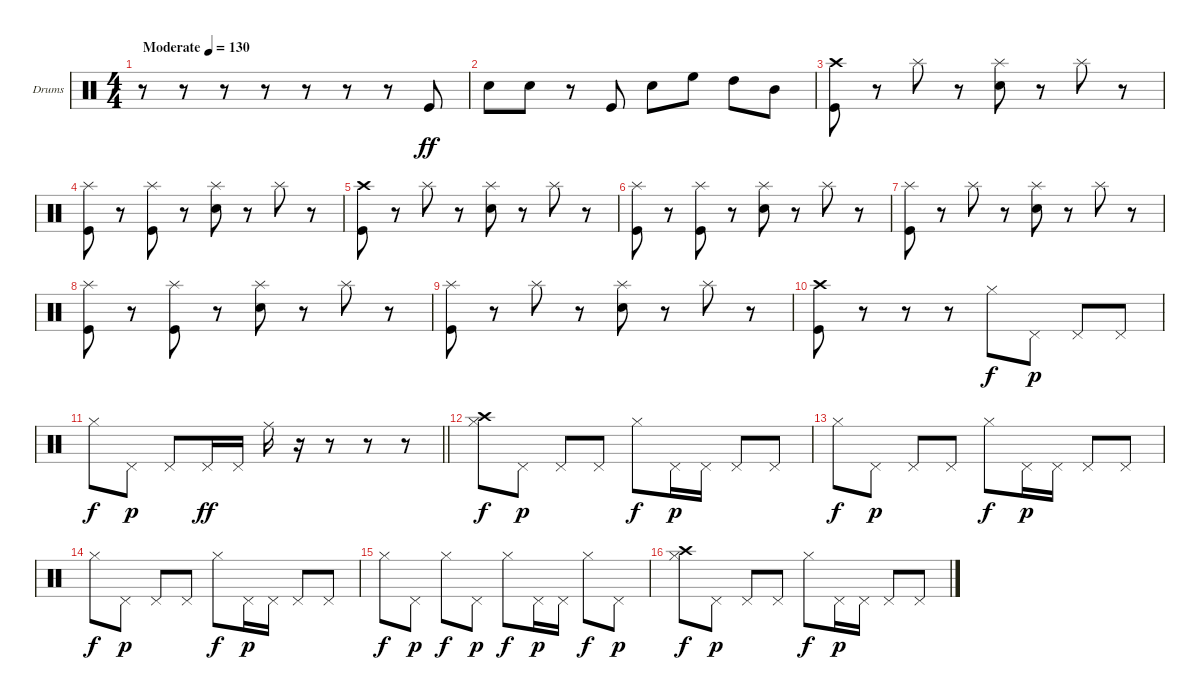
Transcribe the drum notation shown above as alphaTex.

\bracketExtendMode groupsimilarinstruments
\firstSystemTrackNameOrientation horizontal
\otherSystemsTrackNameOrientation horizontal
\track ("Drumkit" "Drums") {instrument percussion}
\staff {score}
\articulation defaults
\ts (4 4)
\beaming (8 2 2 2 2)
\tempo (130 "Moderate")
\clef neutral
\ks c
r.8{dy ff} r.8 r.8 r.8 r.8 r.8 r.8 "Kick (hit)".8 |
"Snare (hit) 2".8 "Snare (hit) 2".8 r.8 "Kick (hit)".8 "Snare (hit) 2".8 "High Floor Tom (hit)".8 "High Tom (hit)".8 "Mid Tom (hit)".8 |
("Kick (hit)" "Crash high (hit)").8 r.8 "Splash (hit)".8 r.8 ("Snare (hit) 2" "Splash (hit)").8 r.8 "Splash (hit)".8 r.8 |
("Kick (hit)" "Splash (hit)").8 r.8 ("Kick (hit)" "Splash (hit)").8 r.8 ("Snare (hit) 2" "Splash (hit)").8 r.8 "Splash (hit)".8 r.8 |
("Kick (hit)" "Crash high (hit)").8 r.8 "Splash (hit)".8 r.8 ("Snare (hit) 2" "Splash (hit)").8 r.8 "Splash (hit)".8 r.8 |
("Kick (hit)" "Splash (hit)").8 r.8 ("Kick (hit)" "Splash (hit)").8 r.8 ("Snare (hit) 2" "Splash (hit)").8 r.8 "Splash (hit)".8 r.8 |
("Kick (hit)" "Splash (hit)").8 r.8 "Splash (hit)".8 r.8 ("Snare (hit) 2" "Splash (hit)").8 r.8 "Splash (hit)".8 r.8 |
("Kick (hit)" "Splash (hit)").8 r.8 ("Kick (hit)" "Splash (hit)").8 r.8 ("Snare (hit) 2" "Splash (hit)").8 r.8 "Splash (hit)".8 r.8 |
("Kick (hit)" "Splash (hit)").8 r.8 "Splash (hit)".8 r.8 ("Snare (hit) 2" "Splash (hit)").8 r.8 "Splash (hit)".8 r.8 |
("Kick (hit)" "Crash high (hit)").8 r.8 r.8 r.8 "Hi-Hat (closed)".8{dy f} "Pedal Hi-Hat (hit)".8{dy p} "Pedal Hi-Hat (hit)".8 "Pedal Hi-Hat (hit)".8 |
\barLineRight lightlight "Hi-Hat (closed)".8{dy f} "Pedal Hi-Hat (hit)".8{dy p} "Pedal Hi-Hat (hit)".8 "Pedal Hi-Hat (hit)".16{dy ff} "Pedal Hi-Hat (hit)".16 "Ride (middle)".16
r.16 r.8 r.8 r.8 |
\section ("" "")
("Hi-Hat (closed)" "Crash high (hit)").8{dy f} "Pedal Hi-Hat (hit)".8{dy p} "Pedal Hi-Hat (hit)".8 "Pedal Hi-Hat (hit)".8 "Hi-Hat (closed)".8{dy f} "Pedal Hi-Hat (hit)".16{dy p} "Pedal Hi-Hat (hit)".16 "Pedal Hi-Hat (hit)".8 "Pedal Hi-Hat (hit)".8 |
"Hi-Hat (closed)".8{dy f} "Pedal Hi-Hat (hit)".8{dy p} "Pedal Hi-Hat (hit)".8 "Pedal Hi-Hat (hit)".8 "Hi-Hat (closed)".8{dy f} "Pedal Hi-Hat (hit)".16{dy p} "Pedal Hi-Hat (hit)".16 "Pedal Hi-Hat (hit)".8 "Pedal Hi-Hat (hit)".8 |
"Hi-Hat (closed)".8{dy f} "Pedal Hi-Hat (hit)".8{dy p} "Pedal Hi-Hat (hit)".8 "Pedal Hi-Hat (hit)".8 "Hi-Hat (closed)".8{dy f} "Pedal Hi-Hat (hit)".16{dy p} "Pedal Hi-Hat (hit)".16 "Pedal Hi-Hat (hit)".8 "Pedal Hi-Hat (hit)".8 |
"Hi-Hat (closed)".8{dy f} "Pedal Hi-Hat (hit)".8{dy p} "Hi-Hat (closed)".8{dy f} "Pedal Hi-Hat (hit)".8{dy p} "Hi-Hat (closed)".8{dy f} "Pedal Hi-Hat (hit)".16{dy p} "Pedal Hi-Hat (hit)".16 "Hi-Hat (closed)".8{dy f} "Pedal Hi-Hat (hit)".8{dy p} |
("Hi-Hat (closed)" "Crash high (hit)").8{dy f} "Pedal Hi-Hat (hit)".8{dy p} "Pedal Hi-Hat (hit)".8 "Pedal Hi-Hat (hit)".8 "Hi-Hat (closed)".8{dy f} "Pedal Hi-Hat (hit)".16{dy p} "Pedal Hi-Hat (hit)".16 "Pedal Hi-Hat (hit)".8 "Pedal Hi-Hat (hit)".8
